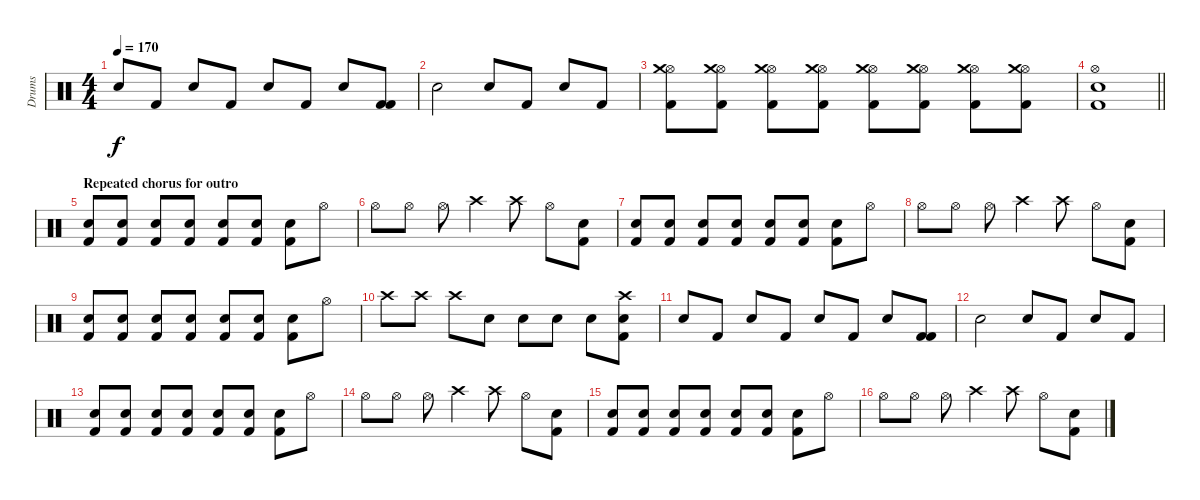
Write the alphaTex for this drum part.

\track ("Drums" "Drums") {instrument percussion}
\staff {score}
\articulation defaults
\ts (4 4)
\tempo 170
\clef neutral
\ks c "Electric Snare (hit)".8{dy f} "Kick (hit) 2".8 "Electric Snare (hit)".8 "Kick (hit) 2".8 "Electric Snare (hit)".8 "Kick (hit) 2".8 "Electric Snare (hit)".8
("Kick (hit) 2" "Kick (hit) 2").8 |
"Electric Snare (hit)".2 "Electric Snare (hit)".8 "Kick (hit) 2".8 "Electric Snare (hit)".8 "Kick (hit) 2".8 |
("Hi-Hat (open)" "Crash medium (hit)" "Kick (hit) 2").8 ("Hi-Hat (open)" "Crash medium (hit)" "Kick (hit) 2").8 ("Hi-Hat (open)" "Crash medium (hit)" "Kick (hit) 2").8 ("Hi-Hat (open)" "Crash medium (hit)" "Kick (hit) 2").8 ("Hi-Hat (open)" "Crash medium (hit)" "Kick (hit) 2").8 ("Hi-Hat (open)" "Crash medium (hit)" "Kick (hit) 2").8 ("Hi-Hat (open)" "Crash medium (hit)" "Kick (hit) 2").8 ("Hi-Hat (open)" "Crash medium (hit)" "Kick (hit) 2").8 |
\barLineRight lightlight
("Hi-Hat (open)" "Electric Snare (hit)" "Kick (hit) 2").1 |
\section ("" "Repeated chorus for outro")
("Electric Snare (hit)" "Kick (hit) 2").8 ("Electric Snare (hit)" "Kick (hit) 2").8 ("Electric Snare (hit)" "Kick (hit) 2").8 ("Electric Snare (hit)" "Kick (hit) 2").8 ("Electric Snare (hit)" "Kick (hit) 2").8 ("Electric Snare (hit)" "Kick (hit) 2").8 ("Electric Snare (hit)" "Kick (hit) 2").8 "Hi-Hat (open)".8 |
"Hi-Hat (open)".8 "Hi-Hat (open)".8 "Hi-Hat (open)".8 "Crash high (hit)".4 "Crash high (hit)".8 "Hi-Hat (open)".8 ("Electric Snare (hit)" "Kick (hit) 2").8 |
("Electric Snare (hit)" "Kick (hit) 2").8 ("Electric Snare (hit)" "Kick (hit) 2").8 ("Electric Snare (hit)" "Kick (hit) 2").8 ("Electric Snare (hit)" "Kick (hit) 2").8 ("Electric Snare (hit)" "Kick (hit) 2").8 ("Electric Snare (hit)" "Kick (hit) 2").8 ("Electric Snare (hit)" "Kick (hit) 2").8 "Hi-Hat (open)".8 |
"Hi-Hat (open)".8 "Hi-Hat (open)".8 "Hi-Hat (open)".8 "Crash high (hit)".4 "Crash high (hit)".8 "Hi-Hat (open)".8 ("Electric Snare (hit)" "Kick (hit) 2").8 |
("Electric Snare (hit)" "Kick (hit) 2").8 ("Electric Snare (hit)" "Kick (hit) 2").8 ("Electric Snare (hit)" "Kick (hit) 2").8 ("Electric Snare (hit)" "Kick (hit) 2").8 ("Electric Snare (hit)" "Kick (hit) 2").8 ("Electric Snare (hit)" "Kick (hit) 2").8 ("Electric Snare (hit)" "Kick (hit) 2").8 "Hi-Hat (open)".8 |
"Crash high (hit)".8 "Crash high (hit)".8 "Crash high (hit)".8 "Electric Snare (hit)".8 "Electric Snare (hit)".8 "Electric Snare (hit)".8 "Electric Snare (hit)".8 ("Electric Snare (hit)" "Crash high (hit)" "Kick (hit) 2").8 |
"Electric Snare (hit)".8 "Kick (hit) 2".8 "Electric Snare (hit)".8 "Kick (hit) 2".8 "Electric Snare (hit)".8 "Kick (hit) 2".8 "Electric Snare (hit)".8 ("Kick (hit) 2" "Kick (hit) 2").8 |
"Electric Snare (hit)".2 "Electric Snare (hit)".8 "Kick (hit) 2".8 "Electric Snare (hit)".8 "Kick (hit) 2".8 |
("Electric Snare (hit)" "Kick (hit) 2").8 ("Electric Snare (hit)" "Kick (hit) 2").8 ("Electric Snare (hit)" "Kick (hit) 2").8 ("Electric Snare (hit)" "Kick (hit) 2").8 ("Electric Snare (hit)" "Kick (hit) 2").8 ("Electric Snare (hit)" "Kick (hit) 2").8 ("Electric Snare (hit)" "Kick (hit) 2").8 "Hi-Hat (open)".8 |
"Hi-Hat (open)".8 "Hi-Hat (open)".8 "Hi-Hat (open)".8 "Crash high (hit)".4 "Crash high (hit)".8 "Hi-Hat (open)".8 ("Electric Snare (hit)" "Kick (hit) 2").8 |
("Electric Snare (hit)" "Kick (hit) 2").8 ("Electric Snare (hit)" "Kick (hit) 2").8 ("Electric Snare (hit)" "Kick (hit) 2").8 ("Electric Snare (hit)" "Kick (hit) 2").8 ("Electric Snare (hit)" "Kick (hit) 2").8 ("Electric Snare (hit)" "Kick (hit) 2").8 ("Electric Snare (hit)" "Kick (hit) 2").8 "Hi-Hat (open)".8 |
"Hi-Hat (open)".8 "Hi-Hat (open)".8 "Hi-Hat (open)".8 "Crash high (hit)".4 "Crash high (hit)".8 "Hi-Hat (open)".8 ("Electric Snare (hit)" "Kick (hit) 2").8
